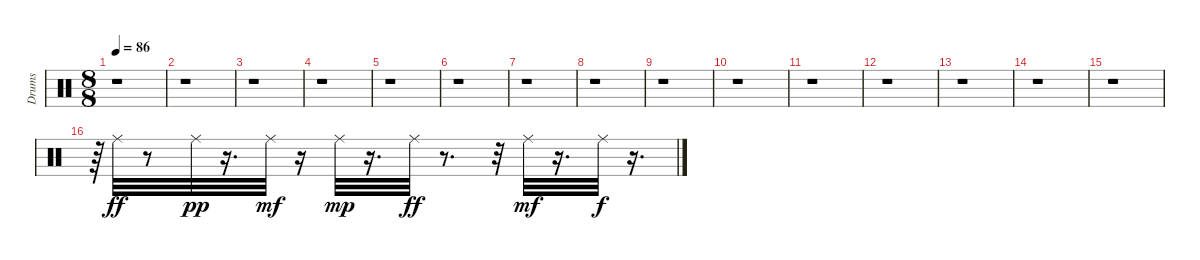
\track ("Drums" "Drums") {instrument percussion}
\staff {score}
\articulation defaults
\ts (8 8)
\tempo 86
\clef neutral
\ks c
r.1{dy fff} |
r.1 |
r.1 |
r.1 |
r.1 |
r.1 |
r.1 |
r.1 |
r.1 |
r.1 |
r.1 |
r.1 |
r.1 |
r.1 |
r.1 |
r.64 "Ride (middle)".32{dy ff} r.8 "Ride (middle)".32{dy pp} r.16{d} "Ride (middle)".32{dy mf} r.16 "Ride (middle)".32{dy mp} r.16{d} "Ride (middle)".32{dy ff} r.8{d} r.32 "Ride (middle)".32{dy mf} r.16{d} "Ride (middle)".32{dy f} r.16{d}
